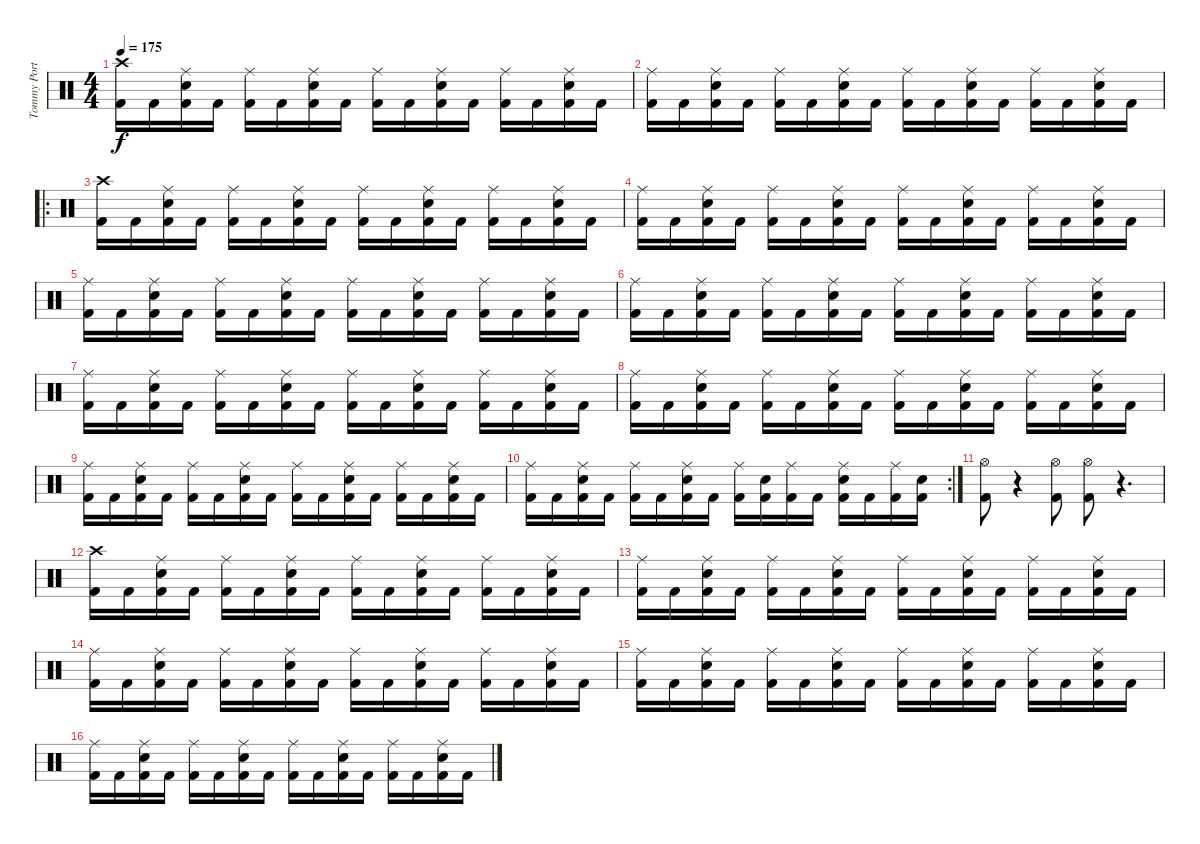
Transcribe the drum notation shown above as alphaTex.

\track ("Tommy Portimo" "Tommy Port") {instrument percussion}
\staff {score}
\articulation defaults
\ts (4 4)
\tempo 175
\clef neutral
\ks c
("Crash high (hit)" "Kick (hit) 2").16{dy f} "Kick (hit) 2".16 ("Ride (middle)" "Electric Snare (hit)" "Kick (hit) 2").16 "Kick (hit) 2".16 ("Ride (middle)" "Kick (hit) 2").16 "Kick (hit) 2".16 ("Ride (middle)" "Electric Snare (hit)" "Kick (hit) 2").16 "Kick (hit) 2".16 ("Ride (middle)" "Kick (hit) 2").16 "Kick (hit) 2".16 ("Ride (middle)" "Electric Snare (hit)" "Kick (hit) 2").16 "Kick (hit) 2".16 ("Ride (middle)" "Kick (hit) 2").16 "Kick (hit) 2".16 ("Ride (middle)" "Electric Snare (hit)" "Kick (hit) 2").16 "Kick (hit) 2".16 |
("Ride (middle)" "Kick (hit) 2").16 "Kick (hit) 2".16 ("Ride (middle)" "Electric Snare (hit)" "Kick (hit) 2").16 "Kick (hit) 2".16 ("Ride (middle)" "Kick (hit) 2").16 "Kick (hit) 2".16 ("Ride (middle)" "Electric Snare (hit)" "Kick (hit) 2").16 "Kick (hit) 2".16 ("Ride (middle)" "Kick (hit) 2").16 "Kick (hit) 2".16 ("Ride (middle)" "Electric Snare (hit)" "Kick (hit) 2").16 "Kick (hit) 2".16 ("Ride (middle)" "Kick (hit) 2").16 "Kick (hit) 2".16 ("Ride (middle)" "Electric Snare (hit)" "Kick (hit) 2").16 "Kick (hit) 2".16 |
\ro
("Crash high (hit)" "Kick (hit) 2").16 "Kick (hit) 2".16 ("Ride (middle)" "Electric Snare (hit)" "Kick (hit) 2").16 "Kick (hit) 2".16 ("Ride (middle)" "Kick (hit) 2").16 "Kick (hit) 2".16 ("Ride (middle)" "Electric Snare (hit)" "Kick (hit) 2").16 "Kick (hit) 2".16 ("Ride (middle)" "Kick (hit) 2").16 "Kick (hit) 2".16 ("Ride (middle)" "Electric Snare (hit)" "Kick (hit) 2").16 "Kick (hit) 2".16 ("Ride (middle)" "Kick (hit) 2").16 "Kick (hit) 2".16 ("Ride (middle)" "Electric Snare (hit)" "Kick (hit) 2").16 "Kick (hit) 2".16 |
("Ride (middle)" "Kick (hit) 2").16 "Kick (hit) 2".16 ("Ride (middle)" "Electric Snare (hit)" "Kick (hit) 2").16 "Kick (hit) 2".16 ("Ride (middle)" "Kick (hit) 2").16 "Kick (hit) 2".16 ("Ride (middle)" "Electric Snare (hit)" "Kick (hit) 2").16 "Kick (hit) 2".16 ("Ride (middle)" "Kick (hit) 2").16 "Kick (hit) 2".16 ("Ride (middle)" "Electric Snare (hit)" "Kick (hit) 2").16 "Kick (hit) 2".16 ("Ride (middle)" "Kick (hit) 2").16 "Kick (hit) 2".16 ("Ride (middle)" "Electric Snare (hit)" "Kick (hit) 2").16 "Kick (hit) 2".16 |
("Ride (middle)" "Kick (hit) 2").16 "Kick (hit) 2".16 ("Ride (middle)" "Electric Snare (hit)" "Kick (hit) 2").16 "Kick (hit) 2".16 ("Ride (middle)" "Kick (hit) 2").16 "Kick (hit) 2".16 ("Ride (middle)" "Electric Snare (hit)" "Kick (hit) 2").16 "Kick (hit) 2".16 ("Ride (middle)" "Kick (hit) 2").16 "Kick (hit) 2".16 ("Ride (middle)" "Electric Snare (hit)" "Kick (hit) 2").16 "Kick (hit) 2".16 ("Ride (middle)" "Kick (hit) 2").16 "Kick (hit) 2".16 ("Ride (middle)" "Electric Snare (hit)" "Kick (hit) 2").16 "Kick (hit) 2".16 |
("Ride (middle)" "Kick (hit) 2").16 "Kick (hit) 2".16 ("Ride (middle)" "Electric Snare (hit)" "Kick (hit) 2").16 "Kick (hit) 2".16 ("Ride (middle)" "Kick (hit) 2").16 "Kick (hit) 2".16 ("Ride (middle)" "Electric Snare (hit)" "Kick (hit) 2").16 "Kick (hit) 2".16 ("Ride (middle)" "Kick (hit) 2").16 "Kick (hit) 2".16 ("Ride (middle)" "Electric Snare (hit)" "Kick (hit) 2").16 "Kick (hit) 2".16 ("Ride (middle)" "Kick (hit) 2").16 "Kick (hit) 2".16 ("Ride (middle)" "Electric Snare (hit)" "Kick (hit) 2").16 "Kick (hit) 2".16 |
("Ride (middle)" "Kick (hit) 2").16 "Kick (hit) 2".16 ("Ride (middle)" "Electric Snare (hit)" "Kick (hit) 2").16 "Kick (hit) 2".16 ("Ride (middle)" "Kick (hit) 2").16 "Kick (hit) 2".16 ("Ride (middle)" "Electric Snare (hit)" "Kick (hit) 2").16 "Kick (hit) 2".16 ("Ride (middle)" "Kick (hit) 2").16 "Kick (hit) 2".16 ("Ride (middle)" "Electric Snare (hit)" "Kick (hit) 2").16 "Kick (hit) 2".16 ("Ride (middle)" "Kick (hit) 2").16 "Kick (hit) 2".16 ("Ride (middle)" "Electric Snare (hit)" "Kick (hit) 2").16 "Kick (hit) 2".16 |
("Ride (middle)" "Kick (hit) 2").16 "Kick (hit) 2".16 ("Ride (middle)" "Electric Snare (hit)" "Kick (hit) 2").16 "Kick (hit) 2".16 ("Ride (middle)" "Kick (hit) 2").16 "Kick (hit) 2".16 ("Ride (middle)" "Electric Snare (hit)" "Kick (hit) 2").16 "Kick (hit) 2".16 ("Ride (middle)" "Kick (hit) 2").16 "Kick (hit) 2".16 ("Ride (middle)" "Electric Snare (hit)" "Kick (hit) 2").16 "Kick (hit) 2".16 ("Ride (middle)" "Kick (hit) 2").16 "Kick (hit) 2".16 ("Ride (middle)" "Electric Snare (hit)" "Kick (hit) 2").16 "Kick (hit) 2".16 |
("Ride (middle)" "Kick (hit) 2").16 "Kick (hit) 2".16 ("Ride (middle)" "Electric Snare (hit)" "Kick (hit) 2").16 "Kick (hit) 2".16 ("Ride (middle)" "Kick (hit) 2").16 "Kick (hit) 2".16 ("Ride (middle)" "Electric Snare (hit)" "Kick (hit) 2").16 "Kick (hit) 2".16 ("Ride (middle)" "Kick (hit) 2").16 "Kick (hit) 2".16 ("Ride (middle)" "Electric Snare (hit)" "Kick (hit) 2").16 "Kick (hit) 2".16 ("Ride (middle)" "Kick (hit) 2").16 "Kick (hit) 2".16 ("Ride (middle)" "Electric Snare (hit)" "Kick (hit) 2").16 "Kick (hit) 2".16 |
\rc 2
("Ride (middle)" "Kick (hit) 2").16 "Kick (hit) 2".16 ("Ride (middle)" "Electric Snare (hit)" "Kick (hit) 2").16 "Kick (hit) 2".16 ("Ride (middle)" "Kick (hit) 2").16 "Kick (hit) 2".16 ("Ride (middle)" "Electric Snare (hit)" "Kick (hit) 2").16 "Kick (hit) 2".16 ("Ride (middle)" "Kick (hit) 2").16 ("Electric Snare (hit)" "Kick (hit) 2").16 ("Ride (middle)" "Kick (hit) 2").16 "Kick (hit) 2".16 ("Ride (middle)" "Electric Snare (hit)" "Kick (hit) 2").16 "Kick (hit) 2".16 ("Ride (middle)" "Kick (hit) 2").16 ("Electric Snare (hit)" "Kick (hit) 2").16 |
("Hi-Hat (open)" "Kick (hit) 2").8 r.4 ("Hi-Hat (open)" "Kick (hit) 2").8 ("Hi-Hat (open)" "Kick (hit) 2").8 r.4{d} |
("Crash high (hit)" "Kick (hit) 2").16 "Kick (hit) 2".16 ("Ride (middle)" "Electric Snare (hit)" "Kick (hit) 2").16 "Kick (hit) 2".16 ("Ride (middle)" "Kick (hit) 2").16 "Kick (hit) 2".16 ("Ride (middle)" "Electric Snare (hit)" "Kick (hit) 2").16 "Kick (hit) 2".16 ("Ride (middle)" "Kick (hit) 2").16 "Kick (hit) 2".16 ("Ride (middle)" "Electric Snare (hit)" "Kick (hit) 2").16 "Kick (hit) 2".16 ("Ride (middle)" "Kick (hit) 2").16 "Kick (hit) 2".16 ("Ride (middle)" "Electric Snare (hit)" "Kick (hit) 2").16 "Kick (hit) 2".16 |
("Ride (middle)" "Kick (hit) 2").16 "Kick (hit) 2".16 ("Ride (middle)" "Electric Snare (hit)" "Kick (hit) 2").16 "Kick (hit) 2".16 ("Ride (middle)" "Kick (hit) 2").16 "Kick (hit) 2".16 ("Ride (middle)" "Electric Snare (hit)" "Kick (hit) 2").16 "Kick (hit) 2".16 ("Ride (middle)" "Kick (hit) 2").16 "Kick (hit) 2".16 ("Ride (middle)" "Electric Snare (hit)" "Kick (hit) 2").16 "Kick (hit) 2".16 ("Ride (middle)" "Kick (hit) 2").16 "Kick (hit) 2".16 ("Ride (middle)" "Electric Snare (hit)" "Kick (hit) 2").16 "Kick (hit) 2".16 |
("Ride (middle)" "Kick (hit) 2").16 "Kick (hit) 2".16 ("Ride (middle)" "Electric Snare (hit)" "Kick (hit) 2").16 "Kick (hit) 2".16 ("Ride (middle)" "Kick (hit) 2").16 "Kick (hit) 2".16 ("Ride (middle)" "Electric Snare (hit)" "Kick (hit) 2").16 "Kick (hit) 2".16 ("Ride (middle)" "Kick (hit) 2").16 "Kick (hit) 2".16 ("Ride (middle)" "Electric Snare (hit)" "Kick (hit) 2").16 "Kick (hit) 2".16 ("Ride (middle)" "Kick (hit) 2").16 "Kick (hit) 2".16 ("Ride (middle)" "Electric Snare (hit)" "Kick (hit) 2").16 "Kick (hit) 2".16 |
("Ride (middle)" "Kick (hit) 2").16 "Kick (hit) 2".16 ("Ride (middle)" "Electric Snare (hit)" "Kick (hit) 2").16 "Kick (hit) 2".16 ("Ride (middle)" "Kick (hit) 2").16 "Kick (hit) 2".16 ("Ride (middle)" "Electric Snare (hit)" "Kick (hit) 2").16 "Kick (hit) 2".16 ("Ride (middle)" "Kick (hit) 2").16 "Kick (hit) 2".16 ("Ride (middle)" "Electric Snare (hit)" "Kick (hit) 2").16 "Kick (hit) 2".16 ("Ride (middle)" "Kick (hit) 2").16 "Kick (hit) 2".16 ("Ride (middle)" "Electric Snare (hit)" "Kick (hit) 2").16 "Kick (hit) 2".16 |
("Ride (middle)" "Kick (hit) 2").16 "Kick (hit) 2".16 ("Ride (middle)" "Electric Snare (hit)" "Kick (hit) 2").16 "Kick (hit) 2".16 ("Ride (middle)" "Kick (hit) 2").16 "Kick (hit) 2".16 ("Ride (middle)" "Electric Snare (hit)" "Kick (hit) 2").16 "Kick (hit) 2".16 ("Ride (middle)" "Kick (hit) 2").16 "Kick (hit) 2".16 ("Ride (middle)" "Electric Snare (hit)" "Kick (hit) 2").16 "Kick (hit) 2".16 ("Ride (middle)" "Kick (hit) 2").16 "Kick (hit) 2".16 ("Ride (middle)" "Electric Snare (hit)" "Kick (hit) 2").16 "Kick (hit) 2".16
